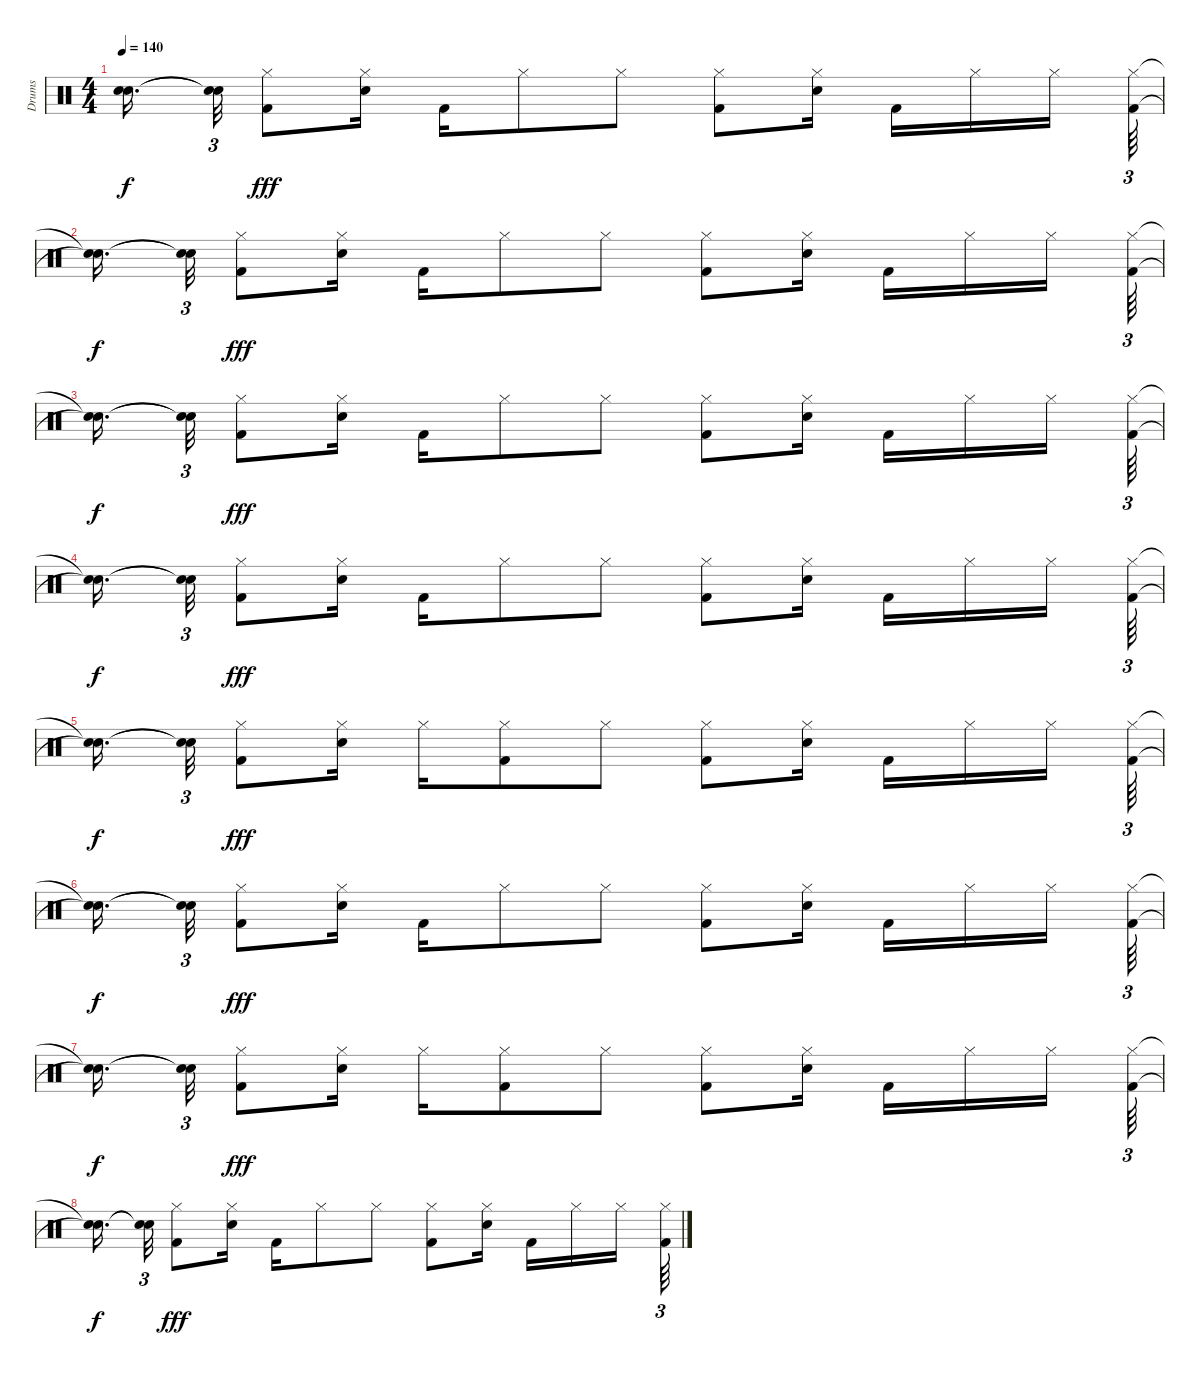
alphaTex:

\track ("Drums" "Drums") {instrument percussion}
\staff {score}
\articulation defaults
\ts (4 4)
\tempo 140
\clef neutral
\ks c
("Snare (hit)"{t} "Snare (hit)"{t}).16{d dy f} ("Snare (hit)"{t} "Snare (hit)"{t}).32{tu (3 2)} ("Kick (hit) 2" "Hi-Hat (closed)").8{dy fff} ("Hi-Hat (closed)" "Snare (hit) 2").16 "Kick (hit) 2".16 "Hi-Hat (closed)".8 "Hi-Hat (closed)".8 ("Hi-Hat (closed)" "Kick (hit) 2").8 ("Snare (hit) 2" "Hi-Hat (closed)").16 "Kick (hit) 2".16 "Hi-Hat (closed)".16 "Hi-Hat (closed)".16 ("Kick (hit) 2" "Hi-Hat (closed)").64{tu (3 2)} |
("Snare (hit)"{t} "Snare (hit)"{t}).16{d dy f} ("Snare (hit)"{t} "Snare (hit)"{t}).32{tu (3 2)} ("Kick (hit) 2" "Hi-Hat (closed)").8{dy fff} ("Snare (hit) 2" "Hi-Hat (closed)").16 "Kick (hit) 2".16 "Hi-Hat (closed)".8 "Hi-Hat (closed)".8 ("Hi-Hat (closed)" "Kick (hit) 2").8 ("Snare (hit) 2" "Hi-Hat (closed)").16 "Kick (hit) 2".16 "Hi-Hat (closed)".16 "Hi-Hat (closed)".16 ("Kick (hit) 2" "Hi-Hat (closed)").64{tu (3 2)} |
("Snare (hit)"{t} "Snare (hit)"{t}).16{d dy f} ("Snare (hit)"{t} "Snare (hit)"{t}).32{tu (3 2)} ("Hi-Hat (closed)" "Kick (hit) 2").8{dy fff} ("Hi-Hat (closed)" "Snare (hit) 2").16 "Kick (hit) 2".16 "Hi-Hat (closed)".8 "Hi-Hat (closed)".8 ("Kick (hit) 2" "Hi-Hat (closed)").8 ("Snare (hit) 2" "Hi-Hat (closed)").16 "Kick (hit) 2".16 "Hi-Hat (closed)".16 "Hi-Hat (closed)".16 ("Kick (hit) 2" "Hi-Hat (closed)").64{tu (3 2)} |
("Snare (hit)"{t} "Snare (hit)"{t}).16{d dy f} ("Snare (hit)"{t} "Snare (hit)"{t}).32{tu (3 2)} ("Kick (hit) 2" "Hi-Hat (closed)").8{dy fff} ("Snare (hit) 2" "Hi-Hat (closed)").16 "Kick (hit) 2".16 "Hi-Hat (closed)".8 "Hi-Hat (closed)".8 ("Hi-Hat (closed)" "Kick (hit) 2").8 ("Hi-Hat (closed)" "Snare (hit) 2").16 "Kick (hit) 2".16 "Hi-Hat (closed)".16 "Hi-Hat (closed)".16 ("Kick (hit) 2" "Hi-Hat (closed)").64{tu (3 2)} |
("Snare (hit)"{t} "Snare (hit)"{t}).16{d dy f} ("Snare (hit)"{t} "Snare (hit)"{t}).32{tu (3 2)} ("Kick (hit) 2" "Hi-Hat (closed)").8{dy fff} ("Hi-Hat (closed)" "Electric Snare (hit)").16 "Hi-Hat (closed)".16 ("Hi-Hat (closed)" "Kick (hit) 2").8 "Hi-Hat (closed)".8 ("Hi-Hat (closed)" "Kick (hit) 2").8 ("Snare (hit) 2" "Hi-Hat (closed)").16 "Kick (hit) 2".16 "Hi-Hat (closed)".16 "Hi-Hat (closed)".16 ("Kick (hit) 2" "Hi-Hat (closed)").64{tu (3 2)} |
("Snare (hit)"{t} "Snare (hit)"{t}).16{d dy f} ("Snare (hit)"{t} "Snare (hit)"{t}).32{tu (3 2)} ("Hi-Hat (closed)" "Kick (hit) 2").8{dy fff} ("Snare (hit) 2" "Hi-Hat (closed)").16 "Kick (hit) 2".16 "Hi-Hat (closed)".8 "Hi-Hat (closed)".8 ("Kick (hit) 2" "Hi-Hat (closed)").8 ("Hi-Hat (closed)" "Snare (hit) 2").16 "Kick (hit) 2".16 "Hi-Hat (closed)".16 "Hi-Hat (closed)".16 ("Hi-Hat (closed)" "Kick (hit) 2").64{tu (3 2)} |
("Snare (hit)"{t} "Snare (hit)"{t}).16{d dy f} ("Snare (hit)"{t} "Snare (hit)"{t}).32{tu (3 2)} ("Hi-Hat (closed)" "Kick (hit) 2").8{dy fff} ("Electric Snare (hit)" "Hi-Hat (closed)").16 "Hi-Hat (closed)".16 ("Hi-Hat (closed)" "Kick (hit) 2").8 "Hi-Hat (closed)".8 ("Kick (hit) 2" "Hi-Hat (closed)").8 ("Snare (hit) 2" "Hi-Hat (closed)").16 "Kick (hit) 2".16 "Hi-Hat (closed)".16 "Hi-Hat (closed)".16 ("Kick (hit) 2" "Hi-Hat (closed)").64{tu (3 2)} |
("Snare (hit)"{t} "Snare (hit)"{t}).16{d dy f} ("Snare (hit)"{t} "Snare (hit)"{t}).32{tu (3 2)} ("Hi-Hat (closed)" "Kick (hit) 2").8{dy fff} ("Snare (hit) 2" "Hi-Hat (closed)").16 "Kick (hit) 2".16 "Hi-Hat (closed)".8 "Hi-Hat (closed)".8 ("Kick (hit) 2" "Hi-Hat (closed)").8 ("Snare (hit) 2" "Hi-Hat (closed)").16 "Kick (hit) 2".16 "Hi-Hat (closed)".16 "Hi-Hat (closed)".16 ("Kick (hit) 2" "Hi-Hat (closed)").64{tu (3 2)}
